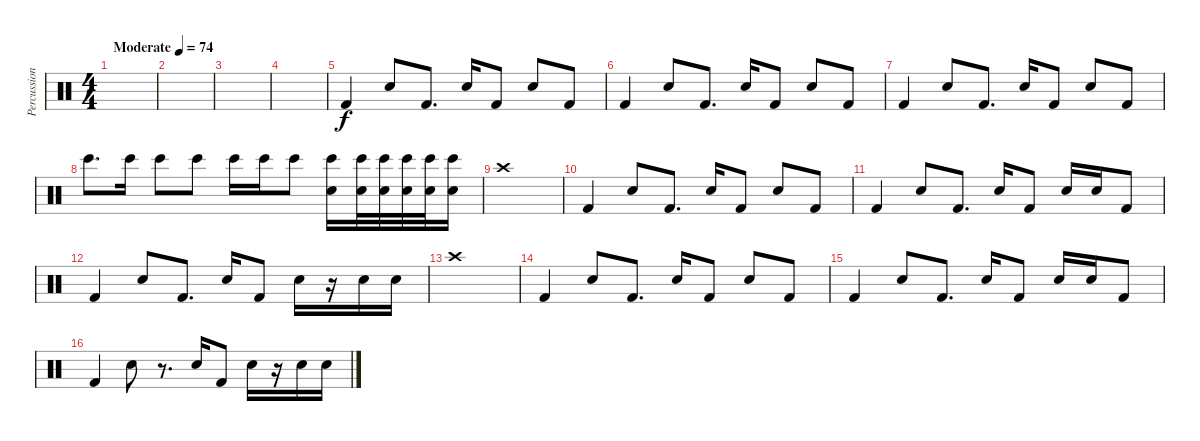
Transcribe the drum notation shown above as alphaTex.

\track ("Percussion" "Percussion") {instrument percussion}
\staff {score}
\articulation defaults
\ts (4 4)
\tempo (74 "Moderate")
\clef neutral
\ks c
|
|
|
|
"Kick (hit) 2".4 "Electric Snare (hit)".8 "Kick (hit) 2".8{d} "Electric Snare (hit)".16 "Kick (hit) 2".8 "Electric Snare (hit)".8 "Kick (hit) 2".8 |
"Kick (hit) 2".4 "Electric Snare (hit)".8 "Kick (hit) 2".8{d} "Electric Snare (hit)".16 "Kick (hit) 2".8 "Electric Snare (hit)".8 "Kick (hit) 2".8 |
"Kick (hit) 2".4 "Electric Snare (hit)".8 "Kick (hit) 2".8{d} "Electric Snare (hit)".16 "Kick (hit) 2".8 "Electric Snare (hit)".8 "Kick (hit) 2".8 |
"Bongo High (hit)".8{d} "Bongo High (hit)".16 "Bongo High (hit)".8 "Bongo High (hit)".8 "Bongo High (hit)".16 "Bongo High (hit)".16 "Bongo High (hit)".8 ("Electric Snare (hit)" "Bongo High (hit)").16 ("Electric Snare (hit)" "Bongo High (hit)").32 ("Electric Snare (hit)" "Bongo High (hit)").32 ("Electric Snare (hit)" "Bongo High (hit)").32 ("Electric Snare (hit)" "Bongo High (hit)").32 ("Electric Snare (hit)" "Bongo High (hit)").16 |
"Crash high (hit)".1 |
"Kick (hit) 2".4 "Electric Snare (hit)".8 "Kick (hit) 2".8{d} "Electric Snare (hit)".16 "Kick (hit) 2".8 "Electric Snare (hit)".8 "Kick (hit) 2".8 |
"Kick (hit) 2".4 "Electric Snare (hit)".8 "Kick (hit) 2".8{d} "Electric Snare (hit)".16 "Kick (hit) 2".8 "Electric Snare (hit)".16 "Electric Snare (hit)".16 "Kick (hit) 2".8 |
"Kick (hit) 2".4 "Electric Snare (hit)".8 "Kick (hit) 2".8{d} "Electric Snare (hit)".16 "Kick (hit) 2".8 "Electric Snare (hit)".16 r.16 "Electric Snare (hit)".16 "Electric Snare (hit)".16 |
"Crash high (hit)".1 |
"Kick (hit) 2".4 "Electric Snare (hit)".8 "Kick (hit) 2".8{d} "Electric Snare (hit)".16 "Kick (hit) 2".8 "Electric Snare (hit)".8 "Kick (hit) 2".8 |
"Kick (hit) 2".4 "Electric Snare (hit)".8 "Kick (hit) 2".8{d} "Electric Snare (hit)".16 "Kick (hit) 2".8 "Electric Snare (hit)".16 "Electric Snare (hit)".16 "Kick (hit) 2".8 |
"Kick (hit) 2".4 "Electric Snare (hit)".8 r.8{d} "Electric Snare (hit)".16 "Kick (hit) 2".8 "Electric Snare (hit)".16 r.16 "Electric Snare (hit)".16 "Electric Snare (hit)".16
